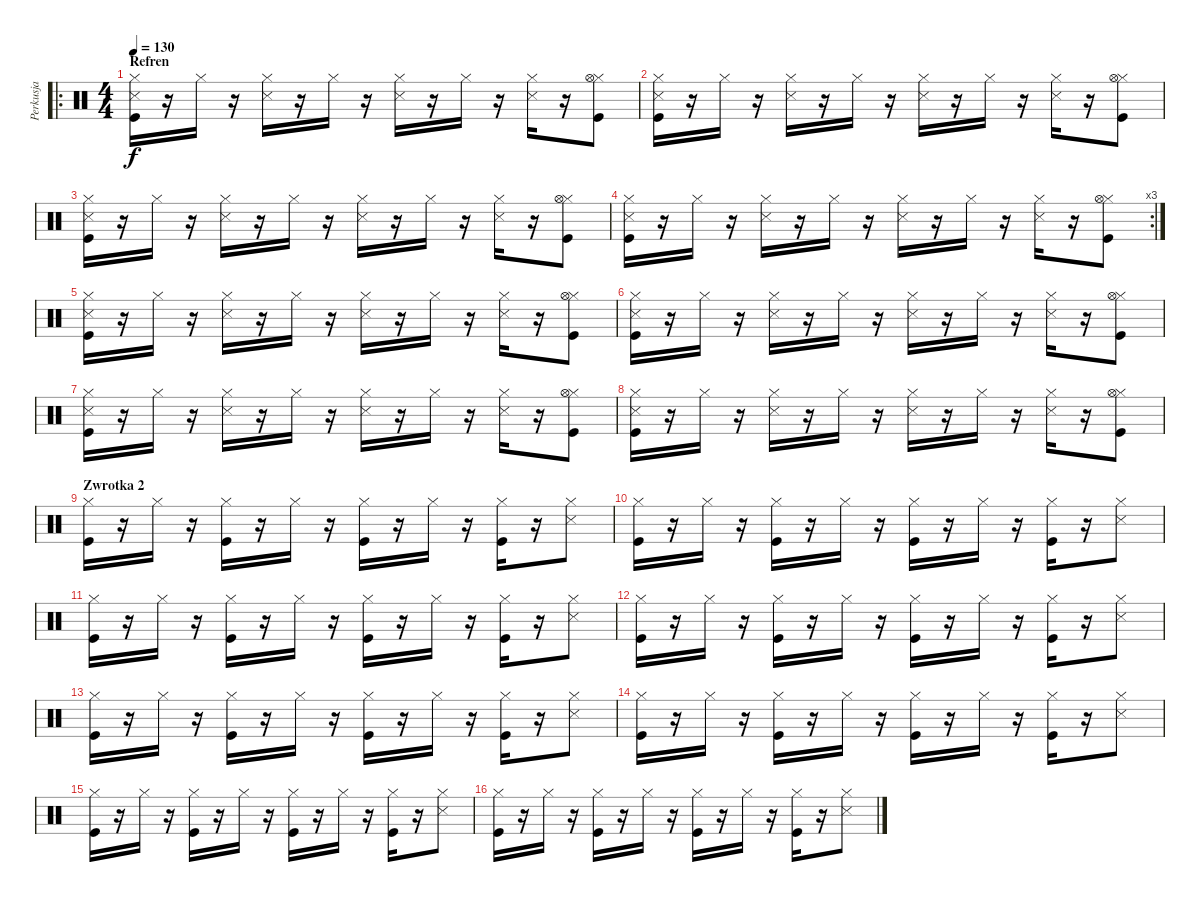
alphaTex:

\track ("Perkusja" "Perkusja") {instrument percussion}
\staff {score}
\articulation defaults
\ro
\ts (4 4)
\section ("" "Refren")
\tempo 130
\clef neutral
\ks c
("Snare (side stick) 3" "Hi-Hat (closed)" "Kick (hit)").16{dy f} r.16 "Hi-Hat (closed)".16 r.16 ("Snare (side stick) 3" "Hi-Hat (closed)").16 r.16 "Hi-Hat (closed)".16 r.16 ("Snare (side stick) 3" "Hi-Hat (closed)").16 r.16 "Hi-Hat (closed)".16 r.16 ("Snare (side stick) 3" "Hi-Hat (closed)").16 r.16 ("Hi-Hat (closed)" "Hi-Hat (open)" "Kick (hit)").8 |
("Snare (side stick) 3" "Hi-Hat (closed)" "Kick (hit)").16 r.16 "Hi-Hat (closed)".16 r.16 ("Snare (side stick) 3" "Hi-Hat (closed)").16 r.16 "Hi-Hat (closed)".16 r.16 ("Snare (side stick) 3" "Hi-Hat (closed)").16 r.16 "Hi-Hat (closed)".16 r.16 ("Snare (side stick) 3" "Hi-Hat (closed)").16 r.16 ("Hi-Hat (closed)" "Hi-Hat (open)" "Kick (hit)").8 |
("Snare (side stick) 3" "Hi-Hat (closed)" "Kick (hit)").16 r.16 "Hi-Hat (closed)".16 r.16 ("Snare (side stick) 3" "Hi-Hat (closed)").16 r.16 "Hi-Hat (closed)".16 r.16 ("Snare (side stick) 3" "Hi-Hat (closed)").16 r.16 "Hi-Hat (closed)".16 r.16 ("Snare (side stick) 3" "Hi-Hat (closed)").16 r.16 ("Hi-Hat (closed)" "Hi-Hat (open)" "Kick (hit)").8 |
\rc 3
("Snare (side stick) 3" "Hi-Hat (closed)" "Kick (hit)").16 r.16 "Hi-Hat (closed)".16 r.16 ("Snare (side stick) 3" "Hi-Hat (closed)").16 r.16 "Hi-Hat (closed)".16 r.16 ("Snare (side stick) 3" "Hi-Hat (closed)").16 r.16 "Hi-Hat (closed)".16 r.16 ("Snare (side stick) 3" "Hi-Hat (closed)").16 r.16 ("Hi-Hat (closed)" "Hi-Hat (open)" "Kick (hit)").8 |
("Snare (side stick) 3" "Hi-Hat (closed)" "Kick (hit)").16 r.16 "Hi-Hat (closed)".16 r.16 ("Snare (side stick) 3" "Hi-Hat (closed)").16 r.16 "Hi-Hat (closed)".16 r.16 ("Snare (side stick) 3" "Hi-Hat (closed)").16 r.16 "Hi-Hat (closed)".16 r.16 ("Snare (side stick) 3" "Hi-Hat (closed)").16 r.16 ("Hi-Hat (closed)" "Hi-Hat (open)" "Kick (hit)").8 |
("Snare (side stick) 3" "Hi-Hat (closed)" "Kick (hit)").16 r.16 "Hi-Hat (closed)".16 r.16 ("Snare (side stick) 3" "Hi-Hat (closed)").16 r.16 "Hi-Hat (closed)".16 r.16 ("Snare (side stick) 3" "Hi-Hat (closed)").16 r.16 "Hi-Hat (closed)".16 r.16 ("Snare (side stick) 3" "Hi-Hat (closed)").16 r.16 ("Hi-Hat (closed)" "Hi-Hat (open)" "Kick (hit)").8 |
("Snare (side stick) 3" "Hi-Hat (closed)" "Kick (hit)").16 r.16 "Hi-Hat (closed)".16 r.16 ("Snare (side stick) 3" "Hi-Hat (closed)").16 r.16 "Hi-Hat (closed)".16 r.16 ("Snare (side stick) 3" "Hi-Hat (closed)").16 r.16 "Hi-Hat (closed)".16 r.16 ("Snare (side stick) 3" "Hi-Hat (closed)").16 r.16 ("Hi-Hat (closed)" "Hi-Hat (open)" "Kick (hit)").8 |
("Snare (side stick) 3" "Hi-Hat (closed)" "Kick (hit)").16 r.16 "Hi-Hat (closed)".16 r.16 ("Snare (side stick) 3" "Hi-Hat (closed)").16 r.16 "Hi-Hat (closed)".16 r.16 ("Snare (side stick) 3" "Hi-Hat (closed)").16 r.16 "Hi-Hat (closed)".16 r.16 ("Snare (side stick) 3" "Hi-Hat (closed)").16 r.16 ("Hi-Hat (closed)" "Hi-Hat (open)" "Kick (hit)").8 |
\section ("" "Zwrotka 2")
("Kick (hit)" "Hi-Hat (closed)").16 r.16 "Hi-Hat (closed)".16 r.16 ("Kick (hit)" "Hi-Hat (closed)").16 r.16 "Hi-Hat (closed)".16 r.16 ("Kick (hit)" "Hi-Hat (closed)").16 r.16 "Hi-Hat (closed)".16 r.16 ("Kick (hit)" "Hi-Hat (closed)").16 r.16 ("Hi-Hat (closed)" "Snare (side stick) 3").8 |
("Kick (hit)" "Hi-Hat (closed)").16 r.16 "Hi-Hat (closed)".16 r.16 ("Kick (hit)" "Hi-Hat (closed)").16 r.16 "Hi-Hat (closed)".16 r.16 ("Kick (hit)" "Hi-Hat (closed)").16 r.16 "Hi-Hat (closed)".16 r.16 ("Kick (hit)" "Hi-Hat (closed)").16 r.16 ("Hi-Hat (closed)" "Snare (side stick) 3").8 |
("Kick (hit)" "Hi-Hat (closed)").16 r.16 "Hi-Hat (closed)".16 r.16 ("Kick (hit)" "Hi-Hat (closed)").16 r.16 "Hi-Hat (closed)".16 r.16 ("Kick (hit)" "Hi-Hat (closed)").16 r.16 "Hi-Hat (closed)".16 r.16 ("Kick (hit)" "Hi-Hat (closed)").16 r.16 ("Hi-Hat (closed)" "Snare (side stick) 3").8 |
("Kick (hit)" "Hi-Hat (closed)").16 r.16 "Hi-Hat (closed)".16 r.16 ("Kick (hit)" "Hi-Hat (closed)").16 r.16 "Hi-Hat (closed)".16 r.16 ("Kick (hit)" "Hi-Hat (closed)").16 r.16 "Hi-Hat (closed)".16 r.16 ("Kick (hit)" "Hi-Hat (closed)").16 r.16 ("Hi-Hat (closed)" "Snare (side stick) 3").8 |
("Kick (hit)" "Hi-Hat (closed)").16 r.16 "Hi-Hat (closed)".16 r.16 ("Kick (hit)" "Hi-Hat (closed)").16 r.16 "Hi-Hat (closed)".16 r.16 ("Kick (hit)" "Hi-Hat (closed)").16 r.16 "Hi-Hat (closed)".16 r.16 ("Kick (hit)" "Hi-Hat (closed)").16 r.16 ("Hi-Hat (closed)" "Snare (side stick) 3").8 |
("Kick (hit)" "Hi-Hat (closed)").16 r.16 "Hi-Hat (closed)".16 r.16 ("Kick (hit)" "Hi-Hat (closed)").16 r.16 "Hi-Hat (closed)".16 r.16 ("Kick (hit)" "Hi-Hat (closed)").16 r.16 "Hi-Hat (closed)".16 r.16 ("Kick (hit)" "Hi-Hat (closed)").16 r.16 ("Hi-Hat (closed)" "Snare (side stick) 3").8 |
("Kick (hit)" "Hi-Hat (closed)").16 r.16 "Hi-Hat (closed)".16 r.16 ("Kick (hit)" "Hi-Hat (closed)").16 r.16 "Hi-Hat (closed)".16 r.16 ("Kick (hit)" "Hi-Hat (closed)").16 r.16 "Hi-Hat (closed)".16 r.16 ("Kick (hit)" "Hi-Hat (closed)").16 r.16 ("Hi-Hat (closed)" "Snare (side stick) 3").8 |
("Kick (hit)" "Hi-Hat (closed)").16 r.16 "Hi-Hat (closed)".16 r.16 ("Kick (hit)" "Hi-Hat (closed)").16 r.16 "Hi-Hat (closed)".16 r.16 ("Kick (hit)" "Hi-Hat (closed)").16 r.16 "Hi-Hat (closed)".16 r.16 ("Kick (hit)" "Hi-Hat (closed)").16 r.16 ("Hi-Hat (closed)" "Snare (side stick) 3").8
